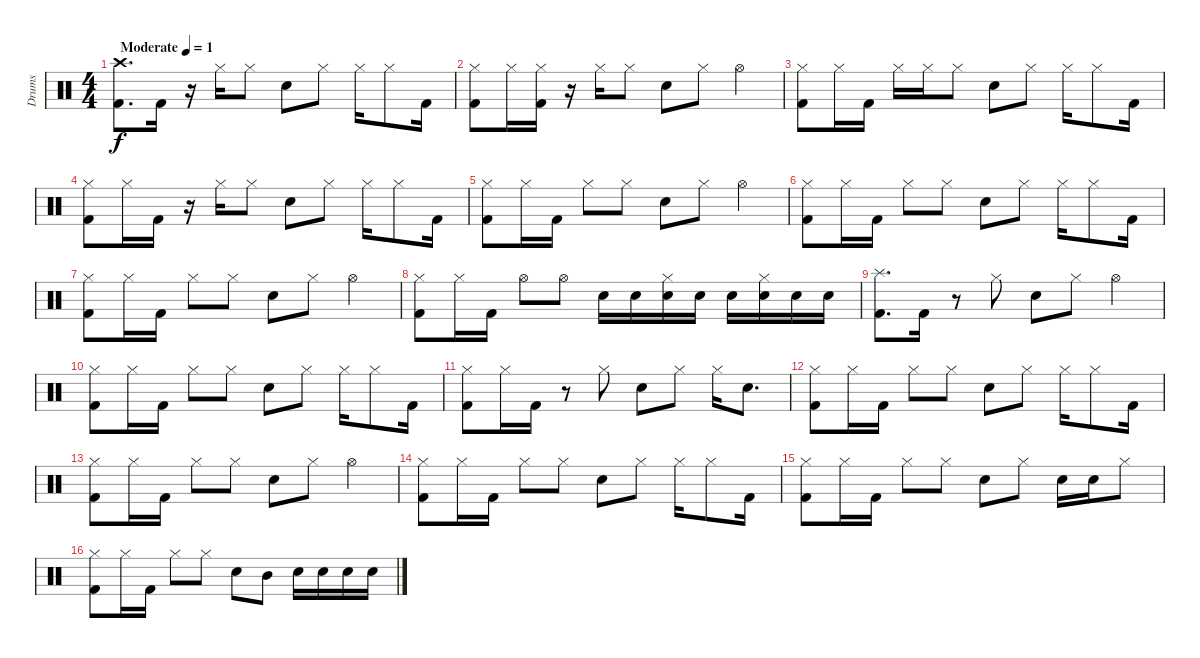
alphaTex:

\track ("Drums" "Drums") {instrument percussion}
\staff {score}
\articulation defaults
\ts (4 4)
\tempo (1 "Moderate")
\clef neutral
\ks c
("Crash high (hit)" "Kick (hit) 2").8{d dy f} "Kick (hit) 2".16 r.16 "Hi-Hat (closed)".16 "Hi-Hat (closed)".8 "Snare (hit) 2".8 "Hi-Hat (closed)".8 "Hi-Hat (closed)".16 "Hi-Hat (closed)".8 "Kick (hit) 2".16 |
("Hi-Hat (closed)" "Kick (hit) 2").8 "Hi-Hat (closed)".16 ("Hi-Hat (closed)" "Kick (hit) 2").16 r.16 "Hi-Hat (closed)".16 "Hi-Hat (closed)".8 "Snare (hit) 2".8 "Hi-Hat (closed)".8 "Hi-Hat (open)".4 |
("Hi-Hat (closed)" "Kick (hit) 2").8 "Hi-Hat (closed)".16 "Kick (hit) 2".16 "Hi-Hat (closed)".16 "Hi-Hat (closed)".16 "Hi-Hat (closed)".8 "Snare (hit) 2".8 "Hi-Hat (closed)".8 "Hi-Hat (closed)".16 "Hi-Hat (closed)".8 "Kick (hit) 2".16 |
("Hi-Hat (closed)" "Kick (hit) 2").8 "Hi-Hat (closed)".16 "Kick (hit) 2".16 r.16 "Hi-Hat (closed)".16 "Hi-Hat (closed)".8 "Snare (hit) 2".8 "Hi-Hat (closed)".8 "Hi-Hat (closed)".16 "Hi-Hat (closed)".8 "Kick (hit) 2".16 |
("Hi-Hat (closed)" "Kick (hit) 2").8 "Hi-Hat (closed)".16 "Kick (hit) 2".16 "Hi-Hat (closed)".8 "Hi-Hat (closed)".8 "Snare (hit) 2".8 "Hi-Hat (closed)".8 "Hi-Hat (open)".4 |
("Hi-Hat (closed)" "Kick (hit) 2").8 "Hi-Hat (closed)".16 "Kick (hit) 2".16 "Hi-Hat (closed)".8 "Hi-Hat (closed)".8 "Snare (hit) 2".8 "Hi-Hat (closed)".8 "Hi-Hat (closed)".16 "Hi-Hat (closed)".8 "Kick (hit) 2".16 |
("Hi-Hat (closed)" "Kick (hit) 2").8 "Hi-Hat (closed)".16 "Kick (hit) 2".16 "Hi-Hat (closed)".8 "Hi-Hat (closed)".8 "Snare (hit) 2".8 "Hi-Hat (closed)".8 "Hi-Hat (open)".4 |
("Hi-Hat (closed)" "Kick (hit) 2").8 "Hi-Hat (closed)".16 "Kick (hit) 2".16 "Hi-Hat (open)".8 "Hi-Hat (open)".8 "Snare (hit) 2".16 "Snare (hit) 2".16 ("Hi-Hat (closed)" "Snare (hit) 2").16 "Snare (hit) 2".16 "Snare (hit) 2".16 ("Hi-Hat (closed)" "Snare (hit) 2").16 "Snare (hit) 2".16 "Snare (hit) 2".16 |
("Kick (hit) 2" "Splash (hit)").8{d} "Kick (hit) 2".16 r.8 "Hi-Hat (closed)".8 "Snare (hit) 2".8 "Hi-Hat (closed)".8 "Hi-Hat (open)".4 |
("Hi-Hat (closed)" "Kick (hit) 2").8 "Hi-Hat (closed)".16 "Kick (hit) 2".16 "Hi-Hat (closed)".8 "Hi-Hat (closed)".8 "Snare (hit) 2".8 "Hi-Hat (closed)".8 "Hi-Hat (closed)".16 "Hi-Hat (closed)".8 "Kick (hit) 2".16 |
("Hi-Hat (closed)" "Kick (hit) 2").8 "Hi-Hat (closed)".16 "Kick (hit) 2".16 r.8 "Hi-Hat (closed)".8 "Snare (hit) 2".8 "Hi-Hat (closed)".8 "Hi-Hat (closed)".16 "Snare (hit) 2".8{d} |
("Hi-Hat (closed)" "Kick (hit) 2").8 "Hi-Hat (closed)".16 "Kick (hit) 2".16 "Hi-Hat (closed)".8 "Hi-Hat (closed)".8 "Snare (hit) 2".8 "Hi-Hat (closed)".8 "Hi-Hat (closed)".16 "Hi-Hat (closed)".8 "Kick (hit) 2".16 |
("Hi-Hat (closed)" "Kick (hit) 2").8 "Hi-Hat (closed)".16 "Kick (hit) 2".16 "Hi-Hat (closed)".8 "Hi-Hat (closed)".8 "Snare (hit) 2".8 "Hi-Hat (closed)".8 "Hi-Hat (open)".4 |
("Hi-Hat (closed)" "Kick (hit) 2").8 "Hi-Hat (closed)".16 "Kick (hit) 2".16 "Hi-Hat (closed)".8 "Hi-Hat (closed)".8 "Snare (hit) 2".8 "Hi-Hat (closed)".8 "Hi-Hat (closed)".16 "Hi-Hat (closed)".8 "Kick (hit) 2".16 |
("Hi-Hat (closed)" "Kick (hit) 2").8 "Hi-Hat (closed)".16 "Kick (hit) 2".16 "Hi-Hat (closed)".8 "Hi-Hat (closed)".8 "Snare (hit) 2".8 "Hi-Hat (closed)".8 "Snare (hit) 2".16 "Snare (hit) 2".16 "Hi-Hat (closed)".8 |
("Hi-Hat (closed)" "Kick (hit) 2").8 "Hi-Hat (closed)".16 "Kick (hit) 2".16 "Hi-Hat (closed)".8 "Hi-Hat (closed)".8 "Snare (hit) 2".8 "Mid Tom (hit)".8 "Snare (hit) 2".16 "Snare (hit) 2".16 "Snare (hit) 2".16 "Snare (hit) 2".16
